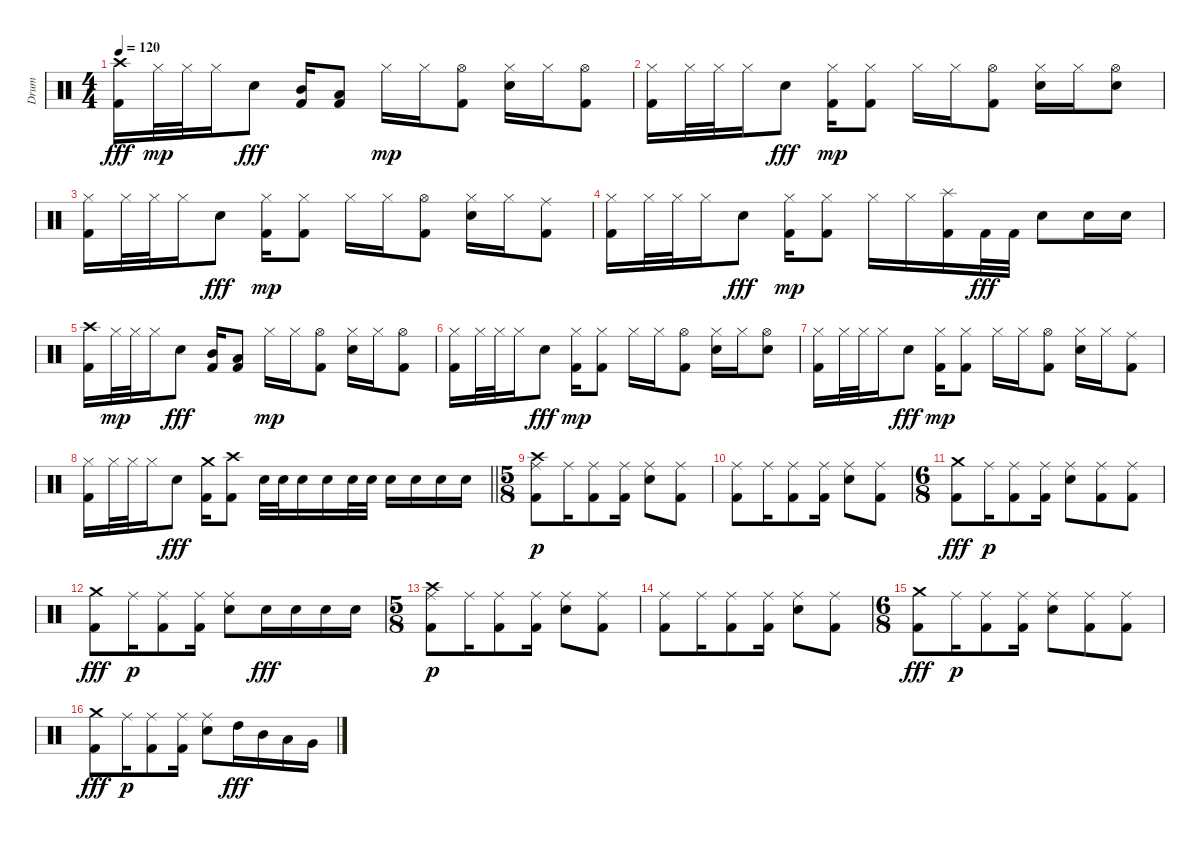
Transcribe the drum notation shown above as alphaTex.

\track ("Drum" "Drum") {instrument percussion}
\staff {score}
\articulation defaults
\ts (4 4)
\tempo 120
\clef neutral
\ks c
("Kick (hit) 2" "Crash high (hit)").16{dy fff} "Hi-Hat (closed)".32{dy mp} "Hi-Hat (closed)".32 "Hi-Hat (closed)".16 "Electric Snare (hit)".8{dy fff} ("Kick (hit) 2" "Mid Tom (hit)").16 ("Kick (hit) 2" "Low Tom (hit)").8 "Hi-Hat (closed)".16{dy mp} "Hi-Hat (closed)".16 ("Kick (hit) 2" "Hi-Hat (open)").8 ("Electric Snare (hit)" "Hi-Hat (closed)").16 "Hi-Hat (closed)".16 ("Kick (hit) 2" "Hi-Hat (open)").8 |
("Kick (hit) 2" "Hi-Hat (closed)").16 "Hi-Hat (closed)".32 "Hi-Hat (closed)".32 "Hi-Hat (closed)".16 "Electric Snare (hit)".8{dy fff} ("Kick (hit) 2" "Hi-Hat (closed)").16{dy mp} ("Kick (hit) 2" "Hi-Hat (closed)").8 "Hi-Hat (closed)".16 "Hi-Hat (closed)".16 ("Kick (hit) 2" "Hi-Hat (open)").8 ("Electric Snare (hit)" "Hi-Hat (closed)").16 "Hi-Hat (closed)".16 ("Electric Snare (hit)" "Hi-Hat (open)").8 |
("Kick (hit) 2" "Hi-Hat (closed)").16 "Hi-Hat (closed)".32 "Hi-Hat (closed)".32 "Hi-Hat (closed)".16 "Electric Snare (hit)".8{dy fff} ("Kick (hit) 2" "Hi-Hat (closed)").16{dy mp} ("Kick (hit) 2" "Hi-Hat (closed)").8 "Hi-Hat (closed)".16 "Hi-Hat (closed)".16 ("Kick (hit) 2" "Hi-Hat (open)").8 ("Electric Snare (hit)" "Hi-Hat (closed)").16 "Hi-Hat (closed)".16 ("Kick (hit) 2" "Ride (middle)").8 |
("Kick (hit) 2" "Hi-Hat (closed)").16 "Hi-Hat (closed)".32 "Hi-Hat (closed)".32 "Hi-Hat (closed)".16 "Electric Snare (hit)".8{dy fff} ("Kick (hit) 2" "Hi-Hat (closed)").16{dy mp} ("Kick (hit) 2" "Hi-Hat (closed)").8 "Hi-Hat (closed)".16 "Hi-Hat (closed)".16 ("Kick (hit) 2" "Splash (hit)").16 "Kick (hit) 2".32{dy fff} "Kick (hit) 2".32 "Electric Snare (hit)".8 "Electric Snare (hit)".16 "Electric Snare (hit)".16 |
("Kick (hit) 2" "Crash high (hit)").16 "Hi-Hat (closed)".32{dy mp} "Hi-Hat (closed)".32 "Hi-Hat (closed)".16 "Electric Snare (hit)".8{dy fff} ("Kick (hit) 2" "Mid Tom (hit)").16 ("Kick (hit) 2" "Low Tom (hit)").8 "Hi-Hat (closed)".16{dy mp} "Hi-Hat (closed)".16 ("Kick (hit) 2" "Hi-Hat (open)").8 ("Electric Snare (hit)" "Hi-Hat (closed)").16 "Hi-Hat (closed)".16 ("Kick (hit) 2" "Hi-Hat (open)").8 |
("Kick (hit) 2" "Hi-Hat (closed)").16 "Hi-Hat (closed)".32 "Hi-Hat (closed)".32 "Hi-Hat (closed)".16 "Electric Snare (hit)".8{dy fff} ("Kick (hit) 2" "Hi-Hat (closed)").16{dy mp} ("Kick (hit) 2" "Hi-Hat (closed)").8 "Hi-Hat (closed)".16 "Hi-Hat (closed)".16 ("Kick (hit) 2" "Hi-Hat (open)").8 ("Electric Snare (hit)" "Hi-Hat (closed)").16 "Hi-Hat (closed)".16 ("Electric Snare (hit)" "Hi-Hat (open)").8 |
("Kick (hit) 2" "Hi-Hat (closed)").16 "Hi-Hat (closed)".32 "Hi-Hat (closed)".32 "Hi-Hat (closed)".16 "Electric Snare (hit)".8{dy fff} ("Kick (hit) 2" "Hi-Hat (closed)").16{dy mp} ("Kick (hit) 2" "Hi-Hat (closed)").8 "Hi-Hat (closed)".16 "Hi-Hat (closed)".16 ("Kick (hit) 2" "Hi-Hat (open)").8 ("Electric Snare (hit)" "Hi-Hat (closed)").16 "Hi-Hat (closed)".16 ("Kick (hit) 2" "Ride (middle)").8 |
\barLineRight lightlight
("Kick (hit) 2" "Hi-Hat (closed)").16 "Hi-Hat (closed)".32 "Hi-Hat (closed)".32 "Hi-Hat (closed)".16 "Electric Snare (hit)".8{dy fff} ("Kick (hit) 2" "Crash medium (hit)").16 ("Kick (hit) 2" "Crash high (hit)").8 "Electric Snare (hit)".32 "Electric Snare (hit)".32 "Electric Snare (hit)".16 "Electric Snare (hit)".16 "Electric Snare (hit)".32 "Electric Snare (hit)".32 "Electric Snare (hit)".16 "Electric Snare (hit)".16 "Electric Snare (hit)".16 "Electric Snare (hit)".16 |
\ts (5 8)
("Kick (hit) 2" "Ride (middle)" "Crash high (hit)").8{dy p} "Ride (middle)".16 ("Kick (hit) 2" "Ride (middle)").8 ("Kick (hit) 2" "Ride (middle)").16 ("Electric Snare (hit)" "Ride (middle)").8 ("Kick (hit) 2" "Ride (middle)").8 |
("Kick (hit) 2" "Ride (middle)").8 "Ride (middle)".16 ("Kick (hit) 2" "Ride (middle)").8 ("Kick (hit) 2" "Ride (middle)").16 ("Electric Snare (hit)" "Ride (middle)").8 ("Kick (hit) 2" "Ride (middle)").8 |
\ts (6 8)
("Kick (hit) 2" "Crash medium (hit)").8{dy fff} "Ride (middle)".16{dy p} ("Kick (hit) 2" "Ride (middle)").8 ("Kick (hit) 2" "Ride (middle)").16 ("Electric Snare (hit)" "Ride (middle)").8 ("Kick (hit) 2" "Ride (middle)").8 ("Kick (hit) 2" "Ride (middle)").8 |
("Kick (hit) 2" "Crash medium (hit)").8{dy fff} "Ride (middle)".16{dy p} ("Kick (hit) 2" "Ride (middle)").8 ("Kick (hit) 2" "Ride (middle)").16 ("Electric Snare (hit)" "Ride (middle)").8 "Electric Snare (hit)".16{dy fff} "Electric Snare (hit)".16 "Electric Snare (hit)".16 "Electric Snare (hit)".16 |
\ts (5 8)
("Kick (hit) 2" "Ride (middle)" "Crash high (hit)").8{dy p} "Ride (middle)".16 ("Kick (hit) 2" "Ride (middle)").8 ("Kick (hit) 2" "Ride (middle)").16 ("Electric Snare (hit)" "Ride (middle)").8 ("Kick (hit) 2" "Ride (middle)").8 |
("Kick (hit) 2" "Ride (middle)").8 "Ride (middle)".16 ("Kick (hit) 2" "Ride (middle)").8 ("Kick (hit) 2" "Ride (middle)").16 ("Electric Snare (hit)" "Ride (middle)").8 ("Kick (hit) 2" "Ride (middle)").8 |
\ts (6 8)
("Kick (hit) 2" "Crash medium (hit)").8{dy fff} "Ride (middle)".16{dy p} ("Kick (hit) 2" "Ride (middle)").8 ("Kick (hit) 2" "Ride (middle)").16 ("Electric Snare (hit)" "Ride (middle)").8 ("Kick (hit) 2" "Ride (middle)").8 ("Kick (hit) 2" "Ride (middle)").8 |
("Kick (hit) 2" "Crash medium (hit)").8{dy fff} "Ride (middle)".16{dy p} ("Kick (hit) 2" "Ride (middle)").8 ("Kick (hit) 2" "Ride (middle)").16 ("Electric Snare (hit)" "Ride (middle)").8 "High Tom (hit)".16{dy fff} "Mid Tom (hit)".16 "Low Tom (hit)".16 "Very Low Tom (hit)".16
